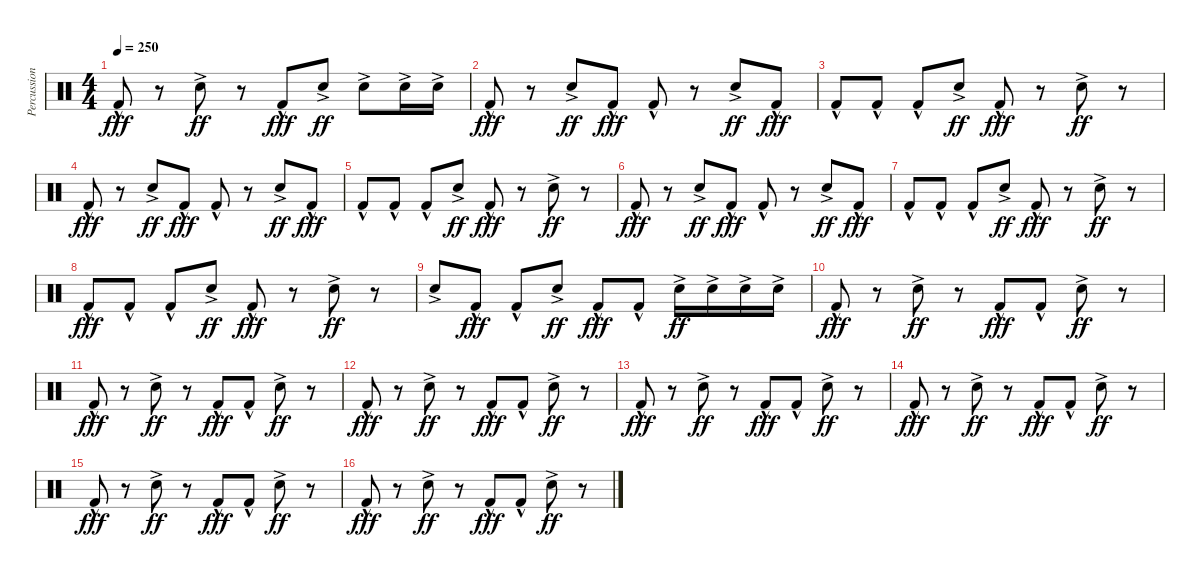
\track ("Percussion" "Percussion") {instrument percussion}
\staff {score}
\articulation defaults
\ts (4 4)
\tempo 250
\clef neutral
\ks c "Kick (hit) 2"{hac}.8{dy fff}
r.8 "Snare (hit) 2"{ac}.8{dy ff} r.8 "Kick (hit) 2"{hac}.8{dy fff} "Snare (hit) 2"{ac}.8{dy ff} "Snare (hit) 2"{ac}.8 "Snare (hit) 2"{ac}.16 "Snare (hit) 2"{ac}.16 |
"Kick (hit) 2"{hac}.8{dy fff} r.8 "Snare (hit) 2"{ac}.8{dy ff} "Kick (hit) 2"{hac}.8{dy fff} "Kick (hit) 2"{hac}.8 r.8 "Snare (hit) 2"{ac}.8{dy ff} "Kick (hit) 2"{hac}.8{dy fff} |
"Kick (hit) 2"{hac}.8 "Kick (hit) 2"{hac}.8 "Kick (hit) 2"{hac}.8 "Snare (hit) 2"{ac}.8{dy ff} "Kick (hit) 2"{hac}.8{dy fff} r.8 "Snare (hit) 2"{ac}.8{dy ff} r.8 |
"Kick (hit) 2"{hac}.8{dy fff} r.8 "Snare (hit) 2"{ac}.8{dy ff} "Kick (hit) 2"{hac}.8{dy fff} "Kick (hit) 2"{hac}.8 r.8 "Snare (hit) 2"{ac}.8{dy ff} "Kick (hit) 2"{hac}.8{dy fff} |
"Kick (hit) 2"{hac}.8 "Kick (hit) 2"{hac}.8 "Kick (hit) 2"{hac}.8 "Snare (hit) 2"{ac}.8{dy ff} "Kick (hit) 2"{hac}.8{dy fff} r.8 "Snare (hit) 2"{ac}.8{dy ff} r.8 |
"Kick (hit) 2"{hac}.8{dy fff} r.8 "Snare (hit) 2"{ac}.8{dy ff} "Kick (hit) 2"{hac}.8{dy fff} "Kick (hit) 2"{hac}.8 r.8 "Snare (hit) 2"{ac}.8{dy ff} "Kick (hit) 2"{hac}.8{dy fff} |
"Kick (hit) 2"{hac}.8 "Kick (hit) 2"{hac}.8 "Kick (hit) 2"{hac}.8 "Snare (hit) 2"{ac}.8{dy ff} "Kick (hit) 2"{hac}.8{dy fff} r.8 "Snare (hit) 2"{ac}.8{dy ff} r.8 |
"Kick (hit) 2"{hac}.8{dy fff} "Kick (hit) 2"{hac}.8 "Kick (hit) 2"{hac}.8 "Snare (hit) 2"{ac}.8{dy ff} "Kick (hit) 2"{hac}.8{dy fff} r.8 "Snare (hit) 2"{ac}.8{dy ff} r.8 |
"Snare (hit) 2"{ac}.8 "Kick (hit) 2"{hac}.8{dy fff} "Kick (hit) 2"{hac}.8 "Snare (hit) 2"{ac}.8{dy ff} "Kick (hit) 2"{hac}.8{dy fff} "Kick (hit) 2"{hac}.8 "Snare (hit) 2"{ac}.16{dy ff} "Snare (hit) 2"{ac}.16 "Snare (hit) 2"{ac}.16 "Snare (hit) 2"{ac}.16 |
"Kick (hit) 2"{hac}.8{dy fff} r.8 "Snare (hit) 2"{ac}.8{dy ff} r.8 "Kick (hit) 2"{hac}.8{dy fff} "Kick (hit) 2"{hac}.8 "Snare (hit) 2"{ac}.8{dy ff} r.8 |
"Kick (hit) 2"{hac}.8{dy fff} r.8 "Snare (hit) 2"{ac}.8{dy ff} r.8 "Kick (hit) 2"{hac}.8{dy fff} "Kick (hit) 2"{hac}.8 "Snare (hit) 2"{ac}.8{dy ff} r.8 |
"Kick (hit) 2"{hac}.8{dy fff} r.8 "Snare (hit) 2"{ac}.8{dy ff} r.8 "Kick (hit) 2"{hac}.8{dy fff} "Kick (hit) 2"{hac}.8 "Snare (hit) 2"{ac}.8{dy ff} r.8 |
"Kick (hit) 2"{hac}.8{dy fff} r.8 "Snare (hit) 2"{ac}.8{dy ff} r.8 "Kick (hit) 2"{hac}.8{dy fff} "Kick (hit) 2"{hac}.8 "Snare (hit) 2"{ac}.8{dy ff} r.8 |
"Kick (hit) 2"{hac}.8{dy fff} r.8 "Snare (hit) 2"{ac}.8{dy ff} r.8 "Kick (hit) 2"{hac}.8{dy fff} "Kick (hit) 2"{hac}.8 "Snare (hit) 2"{ac}.8{dy ff} r.8 |
"Kick (hit) 2"{hac}.8{dy fff} r.8 "Snare (hit) 2"{ac}.8{dy ff} r.8 "Kick (hit) 2"{hac}.8{dy fff} "Kick (hit) 2"{hac}.8 "Snare (hit) 2"{ac}.8{dy ff} r.8 |
"Kick (hit) 2"{hac}.8{dy fff} r.8 "Snare (hit) 2"{ac}.8{dy ff} r.8 "Kick (hit) 2"{hac}.8{dy fff} "Kick (hit) 2"{hac}.8 "Snare (hit) 2"{ac}.8{dy ff} r.8
